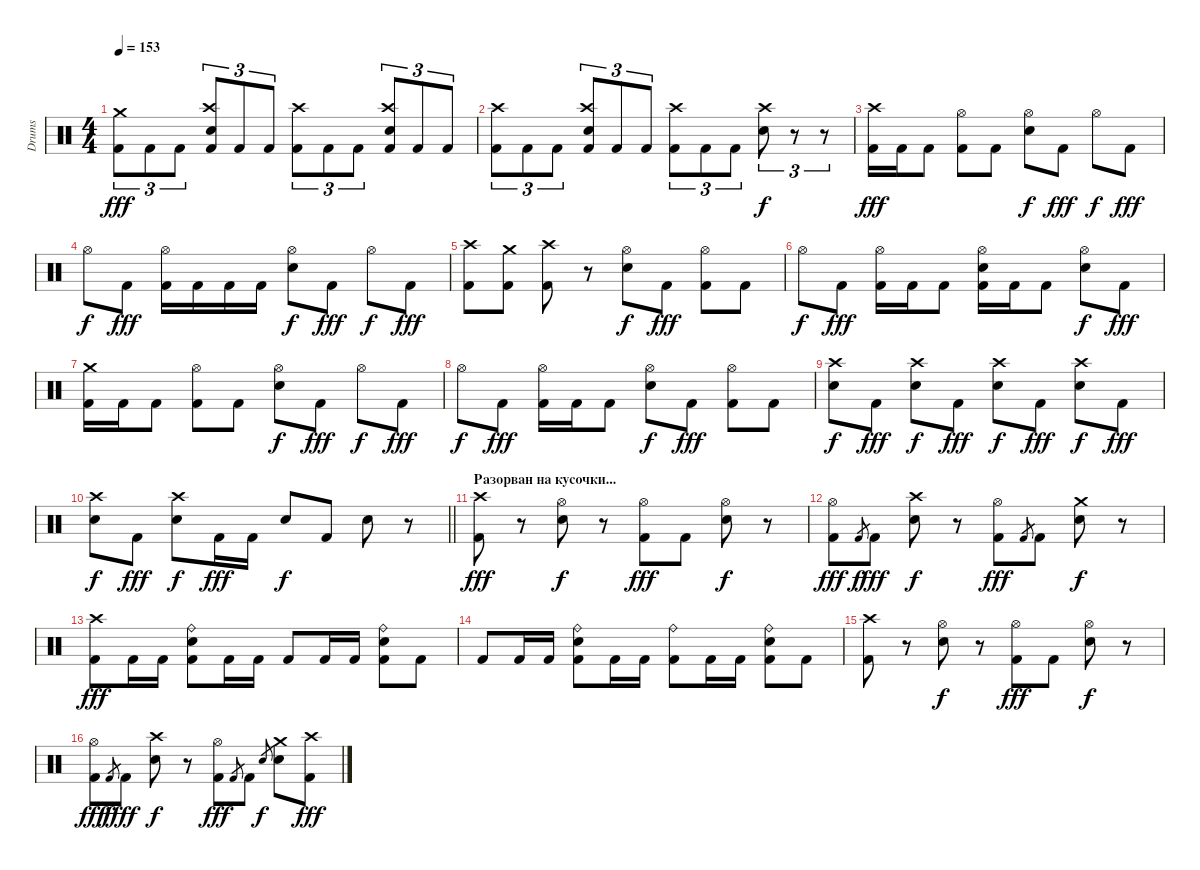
\track ("Drums" "Drums") {instrument percussion}
\staff {score}
\articulation defaults
\ts (4 4)
\tempo 153
\clef neutral
\ks c
("Crash medium (hit)" "Kick (hit) 2").8{tu (3 2) dy fff} "Kick (hit) 2".8{tu (3 2)} "Kick (hit) 2".8{tu (3 2)} ("Crash high (hit)" "Electric Snare (hit)" "Kick (hit) 2").8{tu (3 2)} "Kick (hit) 2".8{tu (3 2)} "Kick (hit) 2".8{tu (3 2)} ("Crash high (hit)" "Kick (hit) 2").8{tu (3 2)} "Kick (hit) 2".8{tu (3 2)} "Kick (hit) 2".8{tu (3 2)} ("Crash high (hit)" "Electric Snare (hit)" "Kick (hit) 2").8{tu (3 2)} "Kick (hit) 2".8{tu (3 2)} "Kick (hit) 2".8{tu (3 2)} |
("Crash high (hit)" "Kick (hit) 2").8{tu (3 2)} "Kick (hit) 2".8{tu (3 2)} "Kick (hit) 2".8{tu (3 2)} ("Crash high (hit)" "Electric Snare (hit)" "Kick (hit) 2").8{tu (3 2)} "Kick (hit) 2".8{tu (3 2)} "Kick (hit) 2".8{tu (3 2)} ("Crash high (hit)" "Kick (hit) 2").8{tu (3 2)} "Kick (hit) 2".8{tu (3 2)} "Kick (hit) 2".8{tu (3 2)} ("Crash high (hit)" "Electric Snare (hit)").8{tu (3 2) dy f} r.8{tu (3 2)} r.8{tu (3 2)} |
("Crash high (hit)" "Kick (hit) 2").16{dy fff} "Kick (hit) 2".16 "Kick (hit) 2".8 ("Hi-Hat (open)" "Kick (hit) 2").8 "Kick (hit) 2".8 ("Hi-Hat (open)" "Electric Snare (hit)").8{dy f} "Kick (hit) 2".8{dy fff} "Hi-Hat (open)".8{dy f} "Kick (hit) 2".8{dy fff} |
"Hi-Hat (open)".8{dy f} "Kick (hit) 2".8{dy fff} ("Hi-Hat (open)" "Kick (hit) 2").16 "Kick (hit) 2".16 "Kick (hit) 2".16 "Kick (hit) 2".16 ("Hi-Hat (open)" "Electric Snare (hit)").8{dy f} "Kick (hit) 2".8{dy fff} "Hi-Hat (open)".8{dy f} "Kick (hit) 2".8{dy fff} |
("Crash high (hit)" "Kick (hit) 2").8 ("Crash medium (hit)" "Kick (hit) 2").8 ("Crash high (hit)" "Kick (hit) 2").8 r.8 ("Hi-Hat (open)" "Electric Snare (hit)").8{dy f} "Kick (hit) 2".8{dy fff} ("Hi-Hat (open)" "Kick (hit) 2").8 "Kick (hit) 2".8 |
"Hi-Hat (open)".8{dy f} "Kick (hit) 2".8{dy fff} ("Hi-Hat (open)" "Kick (hit) 2").16 "Kick (hit) 2".16 "Kick (hit) 2".8 ("Hi-Hat (open)" "Electric Snare (hit)" "Kick (hit) 2").16 "Kick (hit) 2".16 "Kick (hit) 2".8 ("Hi-Hat (open)" "Electric Snare (hit)").8{dy f} "Kick (hit) 2".8{dy fff} |
("Crash medium (hit)" "Kick (hit) 2").16 "Kick (hit) 2".16 "Kick (hit) 2".8 ("Hi-Hat (open)" "Kick (hit) 2").8 "Kick (hit) 2".8 ("Hi-Hat (open)" "Electric Snare (hit)").8{dy f} "Kick (hit) 2".8{dy fff} "Hi-Hat (open)".8{dy f} "Kick (hit) 2".8{dy fff} |
"Hi-Hat (open)".8{dy f} "Kick (hit) 2".8{dy fff} ("Hi-Hat (open)" "Kick (hit) 2").16 "Kick (hit) 2".16 "Kick (hit) 2".8 ("Hi-Hat (open)" "Electric Snare (hit)").8{dy f} "Kick (hit) 2".8{dy fff} ("Hi-Hat (open)" "Kick (hit) 2").8 "Kick (hit) 2".8 |
("Crash high (hit)" "Electric Snare (hit)").8{dy f} "Kick (hit) 2".8{dy fff} ("Crash high (hit)" "Electric Snare (hit)").8{dy f} "Kick (hit) 2".8{dy fff} ("Crash high (hit)" "Electric Snare (hit)").8{dy f} "Kick (hit) 2".8{dy fff} ("Crash high (hit)" "Electric Snare (hit)").8{dy f} "Kick (hit) 2".8{dy fff} |
\barLineRight lightlight
("Crash high (hit)" "Electric Snare (hit)").8{dy f} "Kick (hit) 2".8{dy fff} ("Crash high (hit)" "Electric Snare (hit)").8{dy f} "Kick (hit) 2".16{dy fff} "Kick (hit) 2".16 "Electric Snare (hit)".8{dy f} "Kick (hit) 2".8 "Electric Snare (hit)".8 r.8 |
\section ("" "Разорван на кусочки...")
("Crash high (hit)" "Kick (hit) 2").8{dy fff} r.8 ("Hi-Hat (open)" "Electric Snare (hit)").8{dy f} r.8 ("Hi-Hat (open)" "Kick (hit) 2").8{dy fff} "Kick (hit) 2".8 ("Hi-Hat (open)" "Electric Snare (hit)").8{dy f} r.8 |
("Hi-Hat (open)" "Kick (hit) 2").8{dy fff} "Kick (hit) 2".8{gr dy f} "Kick (hit) 2".8{dy fff} ("Crash high (hit)" "Electric Snare (hit)").8{dy f} r.8 ("Hi-Hat (open)" "Kick (hit) 2").8{dy fff} "Kick (hit) 2".8{gr} "Kick (hit) 2".8 ("Crash medium (hit)" "Electric Snare (hit)").8{dy f} r.8 |
("Crash high (hit)" "Kick (hit) 2").8{dy fff} "Kick (hit) 2".16 "Kick (hit) 2".16 ("Ride (bell)" "Electric Snare (hit)" "Kick (hit) 2").8 "Kick (hit) 2".16 "Kick (hit) 2".16 "Kick (hit) 2".8 "Kick (hit) 2".16 "Kick (hit) 2".16 ("Ride (bell)" "Electric Snare (hit)" "Kick (hit) 2").8 "Kick (hit) 2".8 |
"Kick (hit) 2".8 "Kick (hit) 2".16 "Kick (hit) 2".16 ("Ride (bell)" "Electric Snare (hit)" "Kick (hit) 2").8 "Kick (hit) 2".16 "Kick (hit) 2".16 ("Ride (bell)" "Kick (hit) 2").8 "Kick (hit) 2".16 "Kick (hit) 2".16 ("Ride (bell)" "Electric Snare (hit)" "Kick (hit) 2").8 "Kick (hit) 2".8 |
("Crash high (hit)" "Kick (hit) 2").8 r.8 ("Hi-Hat (open)" "Electric Snare (hit)").8{dy f} r.8 ("Hi-Hat (open)" "Kick (hit) 2").8{dy fff} "Kick (hit) 2".8 ("Hi-Hat (open)" "Electric Snare (hit)").8{dy f} r.8 |
("Hi-Hat (open)" "Kick (hit) 2").8{dy fff} "Kick (hit) 2".8{gr dy f} "Kick (hit) 2".8{dy fff} ("Crash high (hit)" "Electric Snare (hit)").8{dy f} r.8 ("Hi-Hat (open)" "Kick (hit) 2").8{dy fff} "Kick (hit) 2".8{gr} "Kick (hit) 2".8 "Electric Snare (hit)".8{gr dy f} ("Crash medium (hit)" "Electric Snare (hit)").8 ("Crash high (hit)" "Kick (hit) 2").8{dy fff}
